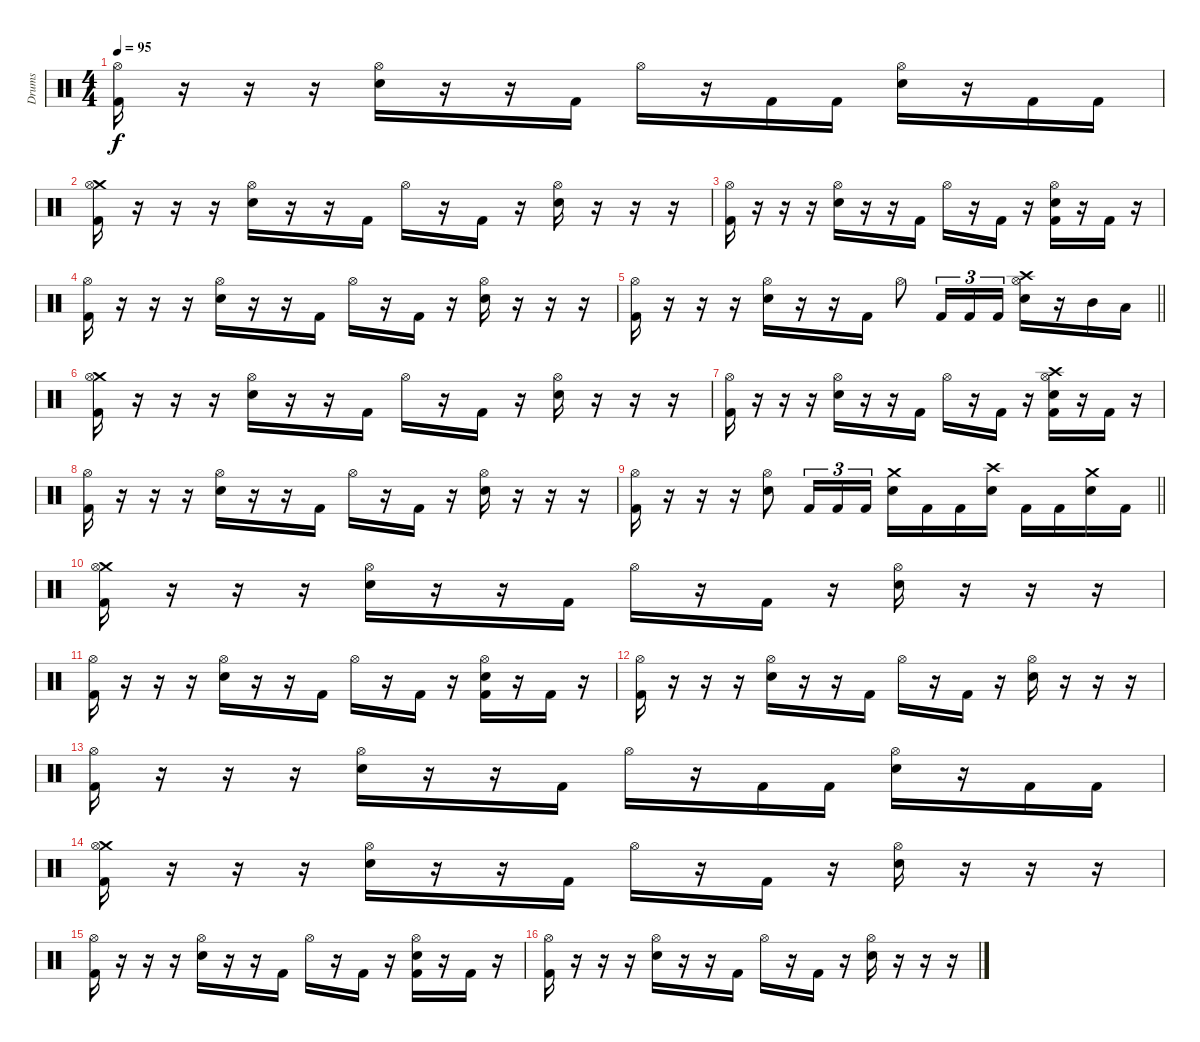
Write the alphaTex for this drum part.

\track ("Drums" "Drums") {instrument percussion}
\staff {score}
\articulation defaults
\ts (4 4)
\tempo 95
\clef neutral
\ks c
("Hi-Hat (open)" "Kick (hit) 2").16{dy f} r.16 r.16 r.16 ("Hi-Hat (open)" "Electric Snare (hit)").16 r.16 r.16 "Kick (hit) 2".16 "Hi-Hat (open)".16 r.16 "Kick (hit) 2".16 "Kick (hit) 2".16 ("Hi-Hat (open)" "Electric Snare (hit)").16 r.16 "Kick (hit) 2".16 "Kick (hit) 2".16 |
("Crash medium (hit)" "Hi-Hat (open)" "Kick (hit) 2").16 r.16 r.16 r.16 ("Hi-Hat (open)" "Electric Snare (hit)").16 r.16 r.16 "Kick (hit) 2".16 "Hi-Hat (open)".16 r.16 "Kick (hit) 2".16 r.16 ("Hi-Hat (open)" "Electric Snare (hit)").16 r.16 r.16 r.16 |
("Hi-Hat (open)" "Kick (hit) 2").16 r.16 r.16 r.16 ("Hi-Hat (open)" "Electric Snare (hit)").16 r.16 r.16 "Kick (hit) 2".16 "Hi-Hat (open)".16 r.16 "Kick (hit) 2".16 r.16 ("Hi-Hat (open)" "Electric Snare (hit)" "Kick (hit) 2").16 r.16 "Kick (hit) 2".16 r.16 |
("Hi-Hat (open)" "Kick (hit) 2").16 r.16 r.16 r.16 ("Hi-Hat (open)" "Electric Snare (hit)").16 r.16 r.16 "Kick (hit) 2".16 "Hi-Hat (open)".16 r.16 "Kick (hit) 2".16 r.16 ("Hi-Hat (open)" "Electric Snare (hit)").16 r.16 r.16 r.16 |
\barLineRight lightlight
("Hi-Hat (open)" "Kick (hit) 2").16 r.16 r.16 r.16 ("Hi-Hat (open)" "Electric Snare (hit)").16 r.16 r.16 "Kick (hit) 2".16 "Hi-Hat (open)".8 "Kick (hit) 2".16{tu (3 2)} "Kick (hit) 2".16{tu (3 2)} "Kick (hit) 2".16{tu (3 2)} ("Crash high (hit)" "Hi-Hat (open)" "Electric Snare (hit)").16 r.16 "Mid Tom (hit)".16 "Low Tom (hit)".16 |
\section ("" "")
("Crash medium (hit)" "Hi-Hat (open)" "Kick (hit) 2").16 r.16 r.16 r.16 ("Hi-Hat (open)" "Electric Snare (hit)").16 r.16 r.16 "Kick (hit) 2".16 "Hi-Hat (open)".16 r.16 "Kick (hit) 2".16 r.16 ("Hi-Hat (open)" "Electric Snare (hit)").16 r.16 r.16 r.16 |
("Hi-Hat (open)" "Kick (hit) 2").16 r.16 r.16 r.16 ("Hi-Hat (open)" "Electric Snare (hit)").16 r.16 r.16 "Kick (hit) 2".16 "Hi-Hat (open)".16 r.16 "Kick (hit) 2".16 r.16 ("Crash high (hit)" "Hi-Hat (open)" "Electric Snare (hit)" "Kick (hit) 2").16 r.16 "Kick (hit) 2".16 r.16 |
("Hi-Hat (open)" "Kick (hit) 2").16 r.16 r.16 r.16 ("Hi-Hat (open)" "Electric Snare (hit)").16 r.16 r.16 "Kick (hit) 2".16 "Hi-Hat (open)".16 r.16 "Kick (hit) 2".16 r.16 ("Hi-Hat (open)" "Electric Snare (hit)").16 r.16 r.16 r.16 |
\barLineRight lightlight
("Hi-Hat (open)" "Kick (hit) 2").16 r.16 r.16 r.16 ("Hi-Hat (open)" "Electric Snare (hit)").8 "Kick (hit) 2".16{tu (3 2)} "Kick (hit) 2".16{tu (3 2)} "Kick (hit) 2".16{tu (3 2)} ("Crash medium (hit)" "Electric Snare (hit)").16 "Kick (hit) 2".16 "Kick (hit) 2".16 ("Crash high (hit)" "Electric Snare (hit)").16 "Kick (hit) 2".16 "Kick (hit) 2".16 ("Crash medium (hit)" "Electric Snare (hit)").16 "Kick (hit) 2".16 |
\section ("" "")
("Crash medium (hit)" "Hi-Hat (open)" "Kick (hit) 2").16 r.16 r.16 r.16 ("Hi-Hat (open)" "Electric Snare (hit)").16 r.16 r.16 "Kick (hit) 2".16 "Hi-Hat (open)".16 r.16 "Kick (hit) 2".16 r.16 ("Hi-Hat (open)" "Electric Snare (hit)").16 r.16 r.16 r.16 |
("Hi-Hat (open)" "Kick (hit) 2").16 r.16 r.16 r.16 ("Hi-Hat (open)" "Electric Snare (hit)").16 r.16 r.16 "Kick (hit) 2".16 "Hi-Hat (open)".16 r.16 "Kick (hit) 2".16 r.16 ("Hi-Hat (open)" "Electric Snare (hit)" "Kick (hit) 2").16 r.16 "Kick (hit) 2".16 r.16 |
("Hi-Hat (open)" "Kick (hit) 2").16 r.16 r.16 r.16 ("Hi-Hat (open)" "Electric Snare (hit)").16 r.16 r.16 "Kick (hit) 2".16 "Hi-Hat (open)".16 r.16 "Kick (hit) 2".16 r.16 ("Hi-Hat (open)" "Electric Snare (hit)").16 r.16 r.16 r.16 |
("Hi-Hat (open)" "Kick (hit) 2").16 r.16 r.16 r.16 ("Hi-Hat (open)" "Electric Snare (hit)").16 r.16 r.16 "Kick (hit) 2".16 "Hi-Hat (open)".16 r.16 "Kick (hit) 2".16 "Kick (hit) 2".16 ("Hi-Hat (open)" "Electric Snare (hit)").16 r.16 "Kick (hit) 2".16 "Kick (hit) 2".16 |
("Crash medium (hit)" "Hi-Hat (open)" "Kick (hit) 2").16 r.16 r.16 r.16 ("Hi-Hat (open)" "Electric Snare (hit)").16 r.16 r.16 "Kick (hit) 2".16 "Hi-Hat (open)".16 r.16 "Kick (hit) 2".16 r.16 ("Hi-Hat (open)" "Electric Snare (hit)").16 r.16 r.16 r.16 |
("Hi-Hat (open)" "Kick (hit) 2").16 r.16 r.16 r.16 ("Hi-Hat (open)" "Electric Snare (hit)").16 r.16 r.16 "Kick (hit) 2".16 "Hi-Hat (open)".16 r.16 "Kick (hit) 2".16 r.16 ("Hi-Hat (open)" "Electric Snare (hit)" "Kick (hit) 2").16 r.16 "Kick (hit) 2".16 r.16 |
("Hi-Hat (open)" "Kick (hit) 2").16 r.16 r.16 r.16 ("Hi-Hat (open)" "Electric Snare (hit)").16 r.16 r.16 "Kick (hit) 2".16 "Hi-Hat (open)".16 r.16 "Kick (hit) 2".16 r.16 ("Hi-Hat (open)" "Electric Snare (hit)").16 r.16 r.16 r.16
